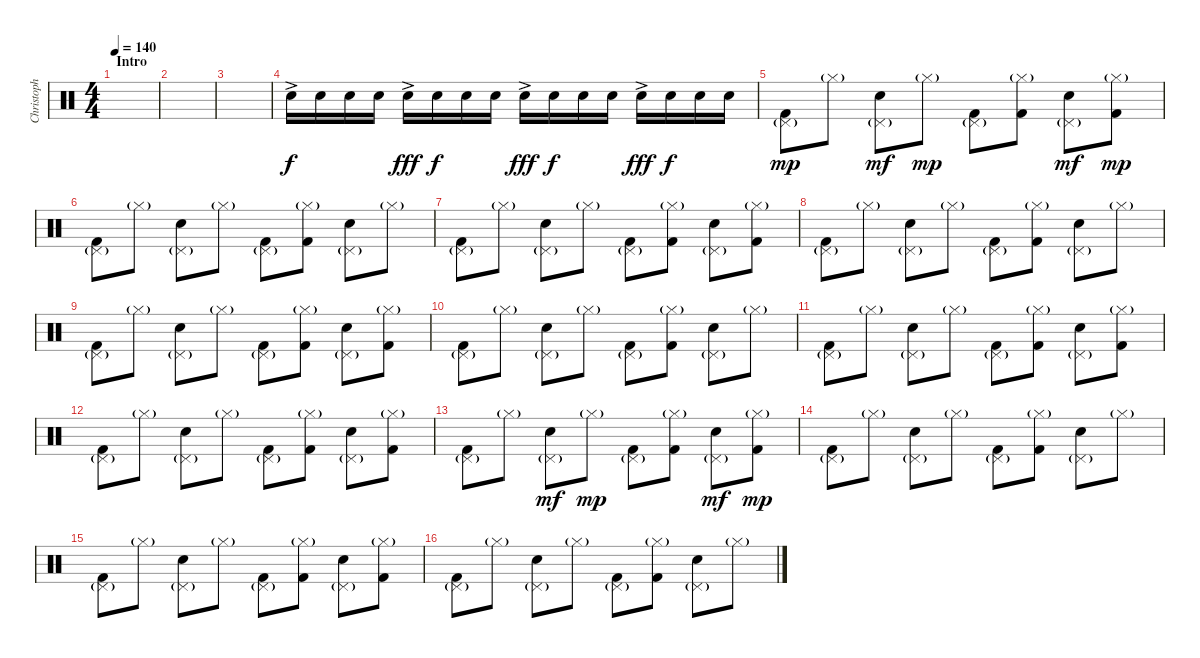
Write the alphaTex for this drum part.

\track ("Christoph" "Christoph") {instrument percussion}
\staff {score}
\articulation defaults
\ts (4 4)
\section ("" "Intro")
\tempo 140
\clef neutral
\ks c
|
|
|
"Electric Snare (hit)"{ac}.16 "Electric Snare (hit)".16{dy f} "Electric Snare (hit)".16 "Electric Snare (hit)".16 "Electric Snare (hit)"{ac}.16{dy fff} "Electric Snare (hit)".16{dy f} "Electric Snare (hit)".16 "Electric Snare (hit)".16 "Electric Snare (hit)"{ac}.16{dy fff} "Electric Snare (hit)".16{dy f} "Electric Snare (hit)".16 "Electric Snare (hit)".16 "Electric Snare (hit)"{ac}.16{dy fff} "Electric Snare (hit)".16{dy f} "Electric Snare (hit)".16 "Electric Snare (hit)".16 |
("Pedal Hi-Hat (hit)"{g} "Kick (hit) 2").8{dy mp} "Hi-Hat (closed)"{g}.8 ("Pedal Hi-Hat (hit)"{g} "Electric Snare (hit)").8{dy mf} "Hi-Hat (closed)"{g}.8{dy mp} ("Pedal Hi-Hat (hit)"{g} "Kick (hit) 2").8 ("Hi-Hat (closed)"{g} "Kick (hit) 2").8 ("Pedal Hi-Hat (hit)"{g} "Electric Snare (hit)").8{dy mf} ("Hi-Hat (closed)"{g} "Kick (hit) 2").8{dy mp} |
("Pedal Hi-Hat (hit)"{g} "Kick (hit) 2").8 "Hi-Hat (closed)"{g}.8 ("Pedal Hi-Hat (hit)"{g} "Electric Snare (hit)").8 "Hi-Hat (closed)"{g}.8 ("Pedal Hi-Hat (hit)"{g} "Kick (hit) 2").8 ("Hi-Hat (closed)"{g} "Kick (hit) 2").8 ("Pedal Hi-Hat (hit)"{g} "Electric Snare (hit)").8 "Hi-Hat (closed)"{g}.8 |
("Pedal Hi-Hat (hit)"{g} "Kick (hit) 2").8 "Hi-Hat (closed)"{g}.8 ("Pedal Hi-Hat (hit)"{g} "Electric Snare (hit)").8 "Hi-Hat (closed)"{g}.8 ("Pedal Hi-Hat (hit)"{g} "Kick (hit) 2").8 ("Hi-Hat (closed)"{g} "Kick (hit) 2").8 ("Pedal Hi-Hat (hit)"{g} "Electric Snare (hit)").8 ("Hi-Hat (closed)"{g} "Kick (hit) 2").8 |
("Pedal Hi-Hat (hit)"{g} "Kick (hit) 2").8 "Hi-Hat (closed)"{g}.8 ("Pedal Hi-Hat (hit)"{g} "Electric Snare (hit)").8 "Hi-Hat (closed)"{g}.8 ("Pedal Hi-Hat (hit)"{g} "Kick (hit) 2").8 ("Hi-Hat (closed)"{g} "Kick (hit) 2").8 ("Pedal Hi-Hat (hit)"{g} "Electric Snare (hit)").8 "Hi-Hat (closed)"{g}.8 |
("Pedal Hi-Hat (hit)"{g} "Kick (hit) 2").8 "Hi-Hat (closed)"{g}.8 ("Pedal Hi-Hat (hit)"{g} "Electric Snare (hit)").8 "Hi-Hat (closed)"{g}.8 ("Pedal Hi-Hat (hit)"{g} "Kick (hit) 2").8 ("Hi-Hat (closed)"{g} "Kick (hit) 2").8 ("Pedal Hi-Hat (hit)"{g} "Electric Snare (hit)").8 ("Hi-Hat (closed)"{g} "Kick (hit) 2").8 |
("Pedal Hi-Hat (hit)"{g} "Kick (hit) 2").8 "Hi-Hat (closed)"{g}.8 ("Pedal Hi-Hat (hit)"{g} "Electric Snare (hit)").8 "Hi-Hat (closed)"{g}.8 ("Pedal Hi-Hat (hit)"{g} "Kick (hit) 2").8 ("Hi-Hat (closed)"{g} "Kick (hit) 2").8 ("Pedal Hi-Hat (hit)"{g} "Electric Snare (hit)").8 "Hi-Hat (closed)"{g}.8 |
("Pedal Hi-Hat (hit)"{g} "Kick (hit) 2").8 "Hi-Hat (closed)"{g}.8 ("Pedal Hi-Hat (hit)"{g} "Electric Snare (hit)").8 "Hi-Hat (closed)"{g}.8 ("Pedal Hi-Hat (hit)"{g} "Kick (hit) 2").8 ("Hi-Hat (closed)"{g} "Kick (hit) 2").8 ("Pedal Hi-Hat (hit)"{g} "Electric Snare (hit)").8 ("Hi-Hat (closed)"{g} "Kick (hit) 2").8 |
("Pedal Hi-Hat (hit)"{g} "Kick (hit) 2").8 "Hi-Hat (closed)"{g}.8 ("Pedal Hi-Hat (hit)"{g} "Electric Snare (hit)").8 "Hi-Hat (closed)"{g}.8 ("Pedal Hi-Hat (hit)"{g} "Kick (hit) 2").8 ("Hi-Hat (closed)"{g} "Kick (hit) 2").8 ("Pedal Hi-Hat (hit)"{g} "Electric Snare (hit)").8 ("Hi-Hat (closed)"{g} "Kick (hit) 2").8 |
("Pedal Hi-Hat (hit)"{g} "Kick (hit) 2").8 "Hi-Hat (closed)"{g}.8 ("Pedal Hi-Hat (hit)"{g} "Electric Snare (hit)").8{dy mf} "Hi-Hat (closed)"{g}.8{dy mp} ("Pedal Hi-Hat (hit)"{g} "Kick (hit) 2").8 ("Hi-Hat (closed)"{g} "Kick (hit) 2").8 ("Pedal Hi-Hat (hit)"{g} "Electric Snare (hit)").8{dy mf} ("Hi-Hat (closed)"{g} "Kick (hit) 2").8{dy mp} |
("Pedal Hi-Hat (hit)"{g} "Kick (hit) 2").8 "Hi-Hat (closed)"{g}.8 ("Pedal Hi-Hat (hit)"{g} "Electric Snare (hit)").8 "Hi-Hat (closed)"{g}.8 ("Pedal Hi-Hat (hit)"{g} "Kick (hit) 2").8 ("Hi-Hat (closed)"{g} "Kick (hit) 2").8 ("Pedal Hi-Hat (hit)"{g} "Electric Snare (hit)").8 "Hi-Hat (closed)"{g}.8 |
("Pedal Hi-Hat (hit)"{g} "Kick (hit) 2").8 "Hi-Hat (closed)"{g}.8 ("Pedal Hi-Hat (hit)"{g} "Electric Snare (hit)").8 "Hi-Hat (closed)"{g}.8 ("Pedal Hi-Hat (hit)"{g} "Kick (hit) 2").8 ("Hi-Hat (closed)"{g} "Kick (hit) 2").8 ("Pedal Hi-Hat (hit)"{g} "Electric Snare (hit)").8 ("Hi-Hat (closed)"{g} "Kick (hit) 2").8 |
("Pedal Hi-Hat (hit)"{g} "Kick (hit) 2").8 "Hi-Hat (closed)"{g}.8 ("Pedal Hi-Hat (hit)"{g} "Electric Snare (hit)").8 "Hi-Hat (closed)"{g}.8 ("Pedal Hi-Hat (hit)"{g} "Kick (hit) 2").8 ("Hi-Hat (closed)"{g} "Kick (hit) 2").8 ("Pedal Hi-Hat (hit)"{g} "Electric Snare (hit)").8 "Hi-Hat (closed)"{g}.8
